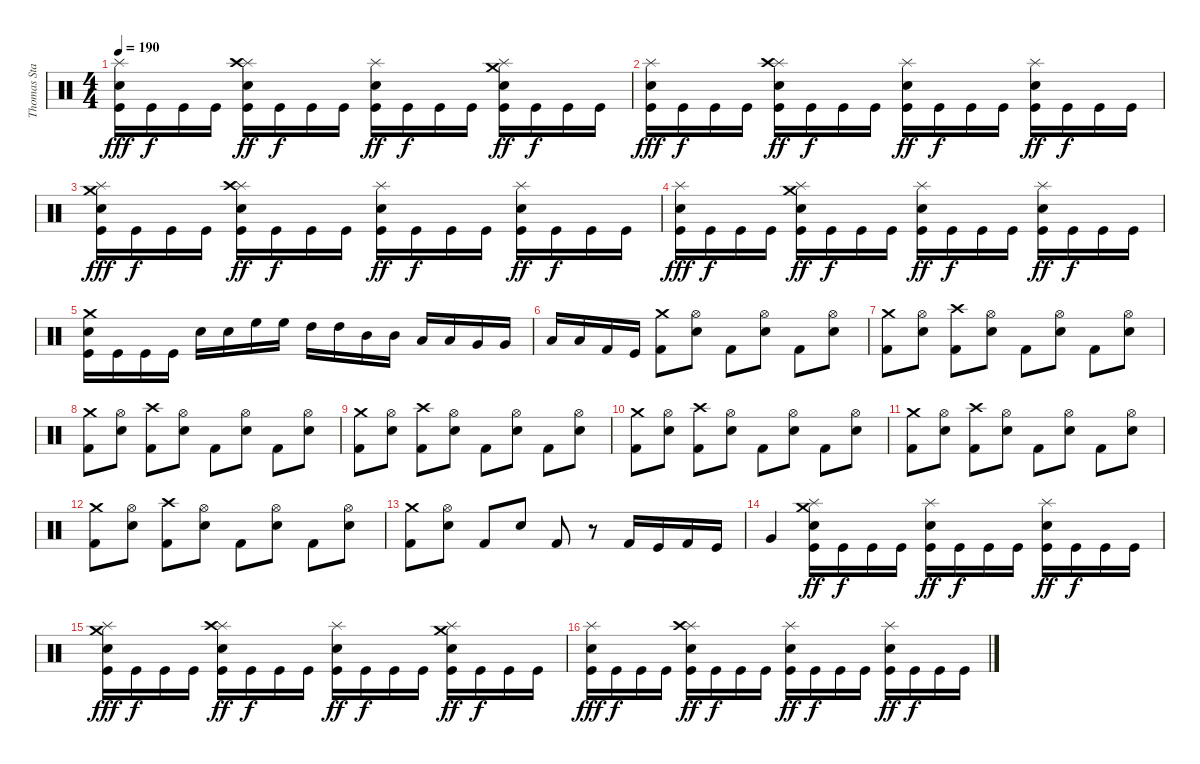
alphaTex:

\track ("Thomas Stauch" "Thomas Sta") {instrument percussion}
\staff {score}
\articulation defaults
\ts (4 4)
\tempo 190
\clef neutral
\ks c
("Splash (hit)" "Electric Snare (hit)" "Kick (hit)").16{dy fff} "Kick (hit)".16{dy f} "Kick (hit)".16 "Kick (hit)".16 ("Splash (hit)" "Crash high (hit)" "Electric Snare (hit)" "Kick (hit)").16{dy ff} "Kick (hit)".16{dy f} "Kick (hit)".16 "Kick (hit)".16 ("Splash (hit)" "Electric Snare (hit)" "Kick (hit)").16{dy ff} "Kick (hit)".16{dy f} "Kick (hit)".16 "Kick (hit)".16 ("Splash (hit)" "Crash medium (hit)" "Electric Snare (hit)" "Kick (hit)").16{dy ff} "Kick (hit)".16{dy f} "Kick (hit)".16 "Kick (hit)".16 |
("Splash (hit)" "Electric Snare (hit)" "Kick (hit)").16{dy fff} "Kick (hit)".16{dy f} "Kick (hit)".16 "Kick (hit)".16 ("Splash (hit)" "Crash high (hit)" "Electric Snare (hit)" "Kick (hit)").16{dy ff} "Kick (hit)".16{dy f} "Kick (hit)".16 "Kick (hit)".16 ("Splash (hit)" "Electric Snare (hit)" "Kick (hit)").16{dy ff} "Kick (hit)".16{dy f} "Kick (hit)".16 "Kick (hit)".16 ("Splash (hit)" "Electric Snare (hit)" "Kick (hit)").16{dy ff} "Kick (hit)".16{dy f} "Kick (hit)".16 "Kick (hit)".16 |
("Splash (hit)" "Crash medium (hit)" "Electric Snare (hit)" "Kick (hit)").16{dy fff} "Kick (hit)".16{dy f} "Kick (hit)".16 "Kick (hit)".16 ("Splash (hit)" "Crash high (hit)" "Electric Snare (hit)" "Kick (hit)").16{dy ff} "Kick (hit)".16{dy f} "Kick (hit)".16 "Kick (hit)".16 ("Splash (hit)" "Electric Snare (hit)" "Kick (hit)").16{dy ff} "Kick (hit)".16{dy f} "Kick (hit)".16 "Kick (hit)".16 ("Splash (hit)" "Electric Snare (hit)" "Kick (hit)").16{dy ff} "Kick (hit)".16{dy f} "Kick (hit)".16 "Kick (hit)".16 |
("Splash (hit)" "Electric Snare (hit)" "Kick (hit)").16{dy fff} "Kick (hit)".16{dy f} "Kick (hit)".16 "Kick (hit)".16 ("Splash (hit)" "Crash medium (hit)" "Electric Snare (hit)" "Kick (hit)").16{dy ff} "Kick (hit)".16{dy f} "Kick (hit)".16 "Kick (hit)".16 ("Splash (hit)" "Electric Snare (hit)" "Kick (hit)").16{dy ff} "Kick (hit)".16{dy f} "Kick (hit)".16 "Kick (hit)".16 ("Splash (hit)" "Electric Snare (hit)" "Kick (hit)").16{dy ff} "Kick (hit)".16{dy f} "Kick (hit)".16 "Kick (hit)".16 |
("Crash medium (hit)" "Electric Snare (hit)" "Kick (hit)").16 "Kick (hit)".16 "Kick (hit)".16 "Kick (hit)".16 "Electric Snare (hit)".16 "Electric Snare (hit)".16 "High Floor Tom (hit)".16 "High Floor Tom (hit)".16 "High Tom (hit)".16 "High Tom (hit)".16 "Mid Tom (hit)".16 "Mid Tom (hit)".16 "Low Tom (hit)".16 "Low Tom (hit)".16 "Very Low Tom (hit)".16 "Very Low Tom (hit)".16 |
"Low Floor Tom (hit)".16 "Low Floor Tom (hit)".16 "Kick (hit) 2".16 "Kick (hit)".16 ("Crash medium (hit)" "Kick (hit) 2").8 ("Hi-Hat (open)" "Electric Snare (hit)").8 "Kick (hit) 2".8 ("Hi-Hat (open)" "Electric Snare (hit)").8 "Kick (hit) 2".8 ("Hi-Hat (open)" "Electric Snare (hit)").8 |
("Crash medium (hit)" "Kick (hit) 2").8 ("Hi-Hat (open)" "Electric Snare (hit)").8 ("Crash high (hit)" "Kick (hit) 2").8 ("Hi-Hat (open)" "Electric Snare (hit)").8 "Kick (hit) 2".8 ("Hi-Hat (open)" "Electric Snare (hit)").8 "Kick (hit) 2".8 ("Hi-Hat (open)" "Electric Snare (hit)").8 |
("Crash medium (hit)" "Kick (hit) 2").8 ("Hi-Hat (open)" "Electric Snare (hit)").8 ("Crash high (hit)" "Kick (hit) 2").8 ("Hi-Hat (open)" "Electric Snare (hit)").8 "Kick (hit) 2".8 ("Hi-Hat (open)" "Electric Snare (hit)").8 "Kick (hit) 2".8 ("Hi-Hat (open)" "Electric Snare (hit)").8 |
("Crash medium (hit)" "Kick (hit) 2").8 ("Hi-Hat (open)" "Electric Snare (hit)").8 ("Crash high (hit)" "Kick (hit) 2").8 ("Hi-Hat (open)" "Electric Snare (hit)").8 "Kick (hit) 2".8 ("Hi-Hat (open)" "Electric Snare (hit)").8 "Kick (hit) 2".8 ("Hi-Hat (open)" "Electric Snare (hit)").8 |
("Crash medium (hit)" "Kick (hit) 2").8 ("Hi-Hat (open)" "Electric Snare (hit)").8 ("Crash high (hit)" "Kick (hit) 2").8 ("Hi-Hat (open)" "Electric Snare (hit)").8 "Kick (hit) 2".8 ("Hi-Hat (open)" "Electric Snare (hit)").8 "Kick (hit) 2".8 ("Hi-Hat (open)" "Electric Snare (hit)").8 |
("Crash medium (hit)" "Kick (hit) 2").8 ("Hi-Hat (open)" "Electric Snare (hit)").8 ("Crash high (hit)" "Kick (hit) 2").8 ("Hi-Hat (open)" "Electric Snare (hit)").8 "Kick (hit) 2".8 ("Hi-Hat (open)" "Electric Snare (hit)").8 "Kick (hit) 2".8 ("Hi-Hat (open)" "Electric Snare (hit)").8 |
("Crash medium (hit)" "Kick (hit) 2").8 ("Hi-Hat (open)" "Electric Snare (hit)").8 ("Crash high (hit)" "Kick (hit) 2").8 ("Hi-Hat (open)" "Electric Snare (hit)").8 "Kick (hit) 2".8 ("Hi-Hat (open)" "Electric Snare (hit)").8 "Kick (hit) 2".8 ("Hi-Hat (open)" "Electric Snare (hit)").8 |
("Crash medium (hit)" "Kick (hit) 2").8 ("Hi-Hat (open)" "Electric Snare (hit)").8 "Kick (hit) 2".8 "Electric Snare (hit)".8 "Kick (hit) 2".8 r.8 "Kick (hit) 2".16 "Kick (hit)".16 "Kick (hit) 2".16 "Kick (hit)".16 |
"Very Low Tom (hit)".4 ("Splash (hit)" "Crash medium (hit)" "Electric Snare (hit)" "Kick (hit)").16{dy ff} "Kick (hit)".16{dy f} "Kick (hit)".16 "Kick (hit)".16 ("Splash (hit)" "Electric Snare (hit)" "Kick (hit)").16{dy ff} "Kick (hit)".16{dy f} "Kick (hit)".16 "Kick (hit)".16 ("Splash (hit)" "Electric Snare (hit)" "Kick (hit)").16{dy ff} "Kick (hit)".16{dy f} "Kick (hit)".16 "Kick (hit)".16 |
("Splash (hit)" "Crash medium (hit)" "Electric Snare (hit)" "Kick (hit)").16{dy fff} "Kick (hit)".16{dy f} "Kick (hit)".16 "Kick (hit)".16 ("Splash (hit)" "Crash high (hit)" "Electric Snare (hit)" "Kick (hit)").16{dy ff} "Kick (hit)".16{dy f} "Kick (hit)".16 "Kick (hit)".16 ("Splash (hit)" "Electric Snare (hit)" "Kick (hit)").16{dy ff} "Kick (hit)".16{dy f} "Kick (hit)".16 "Kick (hit)".16 ("Splash (hit)" "Crash medium (hit)" "Electric Snare (hit)" "Kick (hit)").16{dy ff} "Kick (hit)".16{dy f} "Kick (hit)".16 "Kick (hit)".16 |
("Splash (hit)" "Electric Snare (hit)" "Kick (hit)").16{dy fff} "Kick (hit)".16{dy f} "Kick (hit)".16 "Kick (hit)".16 ("Splash (hit)" "Crash high (hit)" "Electric Snare (hit)" "Kick (hit)").16{dy ff} "Kick (hit)".16{dy f} "Kick (hit)".16 "Kick (hit)".16 ("Splash (hit)" "Electric Snare (hit)" "Kick (hit)").16{dy ff} "Kick (hit)".16{dy f} "Kick (hit)".16 "Kick (hit)".16 ("Splash (hit)" "Electric Snare (hit)" "Kick (hit)").16{dy ff} "Kick (hit)".16{dy f} "Kick (hit)".16 "Kick (hit)".16
